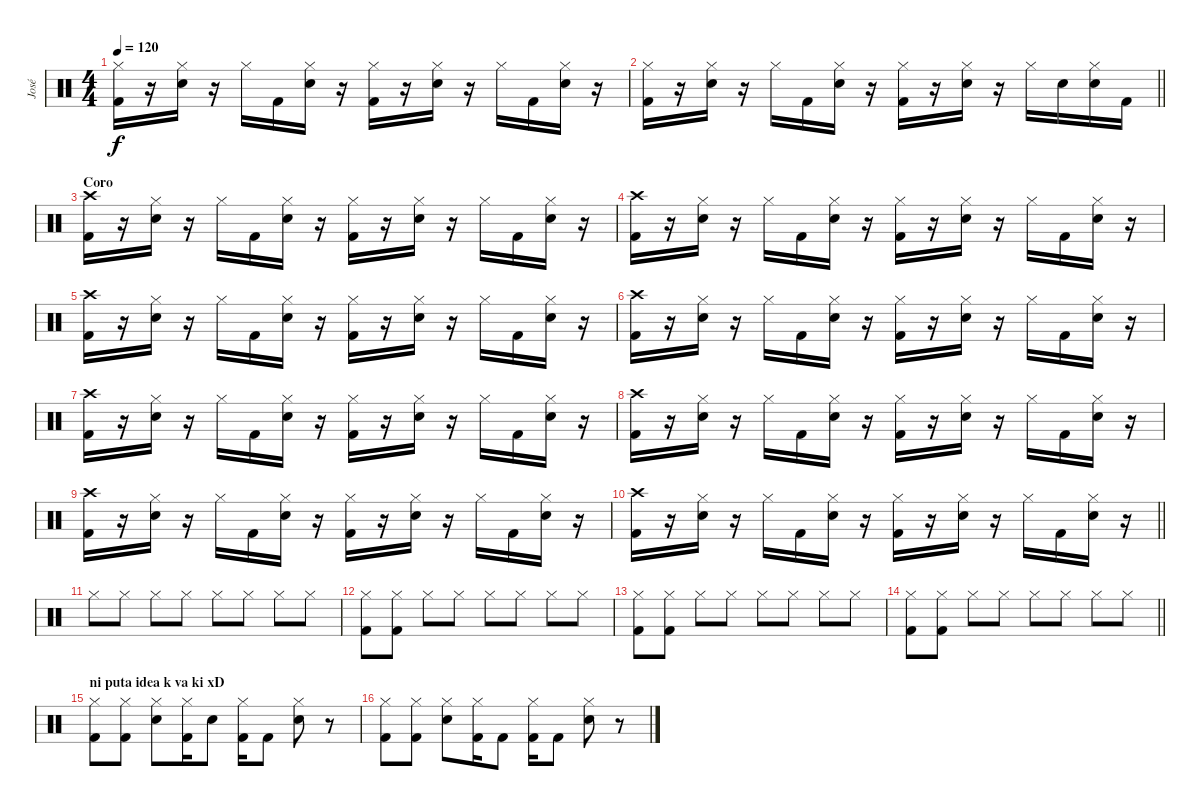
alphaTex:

\track ("José" "José") {instrument percussion}
\staff {score}
\articulation defaults
\ts (4 4)
\tempo 120
\clef neutral
\ks c
("Hi-Hat (closed)" "Kick (hit) 2").16{dy f} r.16 ("Hi-Hat (closed)" "Electric Snare (hit)").16 r.16 "Hi-Hat (closed)".16 "Kick (hit) 2".16 ("Hi-Hat (closed)" "Electric Snare (hit)").16 r.16 ("Hi-Hat (closed)" "Kick (hit) 2").16 r.16 ("Hi-Hat (closed)" "Electric Snare (hit)").16 r.16 "Hi-Hat (closed)".16 "Kick (hit) 2".16 ("Hi-Hat (closed)" "Electric Snare (hit)").16 r.16 |
\barLineRight lightlight
("Hi-Hat (closed)" "Kick (hit) 2").16 r.16 ("Hi-Hat (closed)" "Electric Snare (hit)").16 r.16 "Hi-Hat (closed)".16 "Kick (hit) 2".16 ("Hi-Hat (closed)" "Electric Snare (hit)").16 r.16 ("Hi-Hat (closed)" "Kick (hit) 2").16 r.16 ("Hi-Hat (closed)" "Electric Snare (hit)").16 r.16 "Hi-Hat (closed)".16 "Electric Snare (hit)".16 ("Hi-Hat (closed)" "Electric Snare (hit)").16 "Kick (hit) 2".16 |
\section ("" "Coro")
("Crash high (hit)" "Kick (hit) 2").16 r.16 ("Hi-Hat (closed)" "Electric Snare (hit)").16 r.16 "Hi-Hat (closed)".16 "Kick (hit) 2".16 ("Hi-Hat (closed)" "Electric Snare (hit)").16 r.16 ("Hi-Hat (closed)" "Kick (hit) 2").16 r.16 ("Hi-Hat (closed)" "Electric Snare (hit)").16 r.16 "Hi-Hat (closed)".16 "Kick (hit) 2".16 ("Hi-Hat (closed)" "Electric Snare (hit)").16 r.16 |
("Crash high (hit)" "Kick (hit) 2").16 r.16 ("Hi-Hat (closed)" "Electric Snare (hit)").16 r.16 "Hi-Hat (closed)".16 "Kick (hit) 2".16 ("Hi-Hat (closed)" "Electric Snare (hit)").16 r.16 ("Hi-Hat (closed)" "Kick (hit) 2").16 r.16 ("Hi-Hat (closed)" "Electric Snare (hit)").16 r.16 "Hi-Hat (closed)".16 "Kick (hit) 2".16 ("Hi-Hat (closed)" "Electric Snare (hit)").16 r.16 |
("Crash high (hit)" "Kick (hit) 2").16 r.16 ("Hi-Hat (closed)" "Electric Snare (hit)").16 r.16 "Hi-Hat (closed)".16 "Kick (hit) 2".16 ("Hi-Hat (closed)" "Electric Snare (hit)").16 r.16 ("Hi-Hat (closed)" "Kick (hit) 2").16 r.16 ("Hi-Hat (closed)" "Electric Snare (hit)").16 r.16 "Hi-Hat (closed)".16 "Kick (hit) 2".16 ("Hi-Hat (closed)" "Electric Snare (hit)").16 r.16 |
("Crash high (hit)" "Kick (hit) 2").16 r.16 ("Hi-Hat (closed)" "Electric Snare (hit)").16 r.16 "Hi-Hat (closed)".16 "Kick (hit) 2".16 ("Hi-Hat (closed)" "Electric Snare (hit)").16 r.16 ("Hi-Hat (closed)" "Kick (hit) 2").16 r.16 ("Hi-Hat (closed)" "Electric Snare (hit)").16 r.16 "Hi-Hat (closed)".16 "Kick (hit) 2".16 ("Hi-Hat (closed)" "Electric Snare (hit)").16 r.16 |
("Crash high (hit)" "Kick (hit) 2").16 r.16 ("Hi-Hat (closed)" "Electric Snare (hit)").16 r.16 "Hi-Hat (closed)".16 "Kick (hit) 2".16 ("Hi-Hat (closed)" "Electric Snare (hit)").16 r.16 ("Hi-Hat (closed)" "Kick (hit) 2").16 r.16 ("Hi-Hat (closed)" "Electric Snare (hit)").16 r.16 "Hi-Hat (closed)".16 "Kick (hit) 2".16 ("Hi-Hat (closed)" "Electric Snare (hit)").16 r.16 |
("Crash high (hit)" "Kick (hit) 2").16 r.16 ("Hi-Hat (closed)" "Electric Snare (hit)").16 r.16 "Hi-Hat (closed)".16 "Kick (hit) 2".16 ("Hi-Hat (closed)" "Electric Snare (hit)").16 r.16 ("Hi-Hat (closed)" "Kick (hit) 2").16 r.16 ("Hi-Hat (closed)" "Electric Snare (hit)").16 r.16 "Hi-Hat (closed)".16 "Kick (hit) 2".16 ("Hi-Hat (closed)" "Electric Snare (hit)").16 r.16 |
("Crash high (hit)" "Kick (hit) 2").16 r.16 ("Hi-Hat (closed)" "Electric Snare (hit)").16 r.16 "Hi-Hat (closed)".16 "Kick (hit) 2".16 ("Hi-Hat (closed)" "Electric Snare (hit)").16 r.16 ("Hi-Hat (closed)" "Kick (hit) 2").16 r.16 ("Hi-Hat (closed)" "Electric Snare (hit)").16 r.16 "Hi-Hat (closed)".16 "Kick (hit) 2".16 ("Hi-Hat (closed)" "Electric Snare (hit)").16 r.16 |
\barLineRight lightlight
("Crash high (hit)" "Kick (hit) 2").16 r.16 ("Hi-Hat (closed)" "Electric Snare (hit)").16 r.16 "Hi-Hat (closed)".16 "Kick (hit) 2".16 ("Hi-Hat (closed)" "Electric Snare (hit)").16 r.16 ("Hi-Hat (closed)" "Kick (hit) 2").16 r.16 ("Hi-Hat (closed)" "Electric Snare (hit)").16 r.16 "Hi-Hat (closed)".16 "Kick (hit) 2".16 ("Hi-Hat (closed)" "Electric Snare (hit)").16 r.16 |
"Hi-Hat (closed)".8 "Hi-Hat (closed)".8 "Hi-Hat (closed)".8 "Hi-Hat (closed)".8 "Hi-Hat (closed)".8 "Hi-Hat (closed)".8 "Hi-Hat (closed)".8 "Hi-Hat (closed)".8 |
("Hi-Hat (closed)" "Kick (hit) 2").8 ("Hi-Hat (closed)" "Kick (hit) 2").8 "Hi-Hat (closed)".8 "Hi-Hat (closed)".8 "Hi-Hat (closed)".8 "Hi-Hat (closed)".8 "Hi-Hat (closed)".8 "Hi-Hat (closed)".8 |
("Hi-Hat (closed)" "Kick (hit) 2").8 ("Hi-Hat (closed)" "Kick (hit) 2").8 "Hi-Hat (closed)".8 "Hi-Hat (closed)".8 "Hi-Hat (closed)".8 "Hi-Hat (closed)".8 "Hi-Hat (closed)".8 "Hi-Hat (closed)".8 |
\barLineRight lightlight
("Hi-Hat (closed)" "Kick (hit) 2").8 ("Hi-Hat (closed)" "Kick (hit) 2").8 "Hi-Hat (closed)".8 "Hi-Hat (closed)".8 "Hi-Hat (closed)".8 "Hi-Hat (closed)".8 "Hi-Hat (closed)".8 "Hi-Hat (closed)".8 |
\section ("" "ni puta idea k va ki xD")
("Hi-Hat (closed)" "Kick (hit) 2").8 ("Hi-Hat (closed)" "Kick (hit) 2").8 ("Hi-Hat (closed)" "Electric Snare (hit)").8 ("Hi-Hat (closed)" "Kick (hit) 2").16 "Electric Snare (hit)".8 ("Hi-Hat (closed)" "Kick (hit) 2").16 "Kick (hit) 2".8 ("Hi-Hat (closed)" "Electric Snare (hit)").8 r.8 |
("Hi-Hat (closed)" "Kick (hit) 2").8 ("Hi-Hat (closed)" "Kick (hit) 2").8 ("Hi-Hat (closed)" "Electric Snare (hit)").8 ("Hi-Hat (closed)" "Kick (hit) 2").16 "Kick (hit) 2".8 ("Hi-Hat (closed)" "Kick (hit) 2").16 "Kick (hit) 2".8 ("Hi-Hat (closed)" "Electric Snare (hit)").8 r.8
